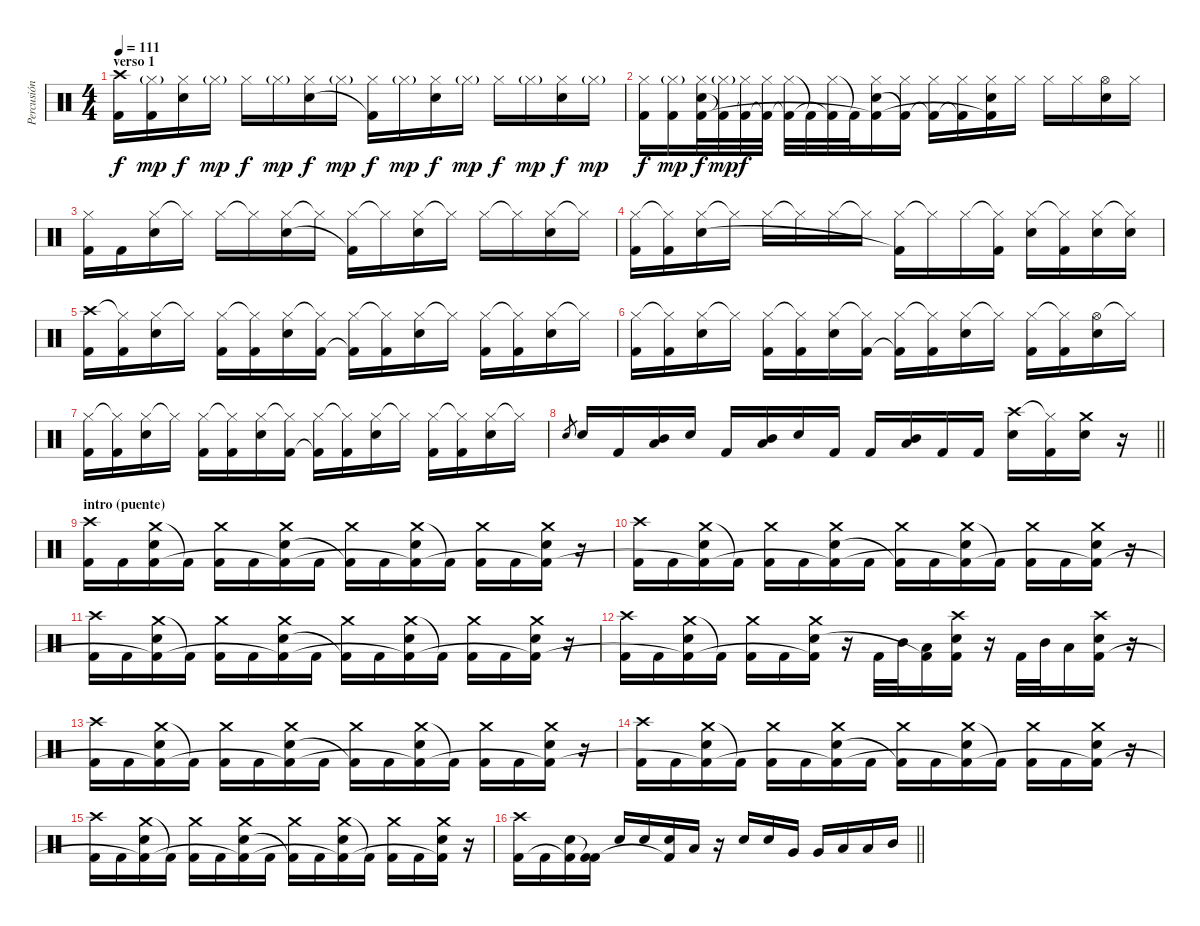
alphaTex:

\track ("Percusión" "Percusión") {instrument percussion}
\staff {score}
\articulation defaults
\ts (4 4)
\section ("" "verso 1")
\tempo 111
\clef neutral
\ks c
("Crash high (hit)" "Kick (hit) 2").16{dy f} ("Hi-Hat (closed)"{g} "Kick (hit) 2").16{dy mp} ("Hi-Hat (closed)" "Electric Snare (hit)").16{dy f} "Hi-Hat (closed)"{g}.16{dy mp} "Hi-Hat (closed)".16{dy f} "Hi-Hat (closed)"{g}.16{dy mp} ("Hi-Hat (closed)" "Electric Snare (hit)").16{dy f} "Hi-Hat (closed)"{g}.16{dy mp} ("Hi-Hat (closed)" "Kick (hit) 2"{t}).16{dy f} "Hi-Hat (closed)"{g}.16{dy mp} ("Hi-Hat (closed)" "Electric Snare (hit)").16{dy f} "Hi-Hat (closed)"{g}.16{dy mp} "Hi-Hat (closed)".16{dy f} "Hi-Hat (closed)"{g}.16{dy mp} ("Hi-Hat (closed)" "Electric Snare (hit)").16{dy f} "Hi-Hat (closed)"{g}.16{dy mp} |
("Hi-Hat (closed)" "Kick (hit) 2").16{dy f} ("Hi-Hat (closed)"{g} "Kick (hit) 2").16{dy mp} ("Hi-Hat (closed)" "Electric Snare (hit)" "Kick (hit) 2"{t}).32{dy f} ("Hi-Hat (closed)"{g} "Kick (hit) 2"{t}).32{dy mp} ("Hi-Hat (closed)" "Kick (hit) 2"{t}).32{dy f} ("Hi-Hat (closed)" "Kick (hit) 2"{t}).32 ("Hi-Hat (closed)" "Kick (hit) 2"{t}).32 "Kick (hit) 2"{t}.32 ("Hi-Hat (closed)" "Kick (hit) 2"{t}).32 "Kick (hit) 2"{t}.32 ("Hi-Hat (closed)" "Electric Snare (hit)" "Kick (hit) 2"{t}).16 ("Hi-Hat (closed)" "Kick (hit) 2"{t}).16 ("Hi-Hat (closed)" "Kick (hit) 2"{t}).16 ("Hi-Hat (closed)" "Kick (hit) 2"{t}).16 ("Hi-Hat (closed)" "Electric Snare (hit)" "Kick (hit) 2"{t}).16 "Hi-Hat (closed)".16 "Hi-Hat (closed)".16 "Hi-Hat (closed)".16 ("Hi-Hat (open)" "Electric Snare (hit)").16 "Hi-Hat (closed)".16 |
("Hi-Hat (closed)" "Kick (hit) 2").16 "Kick (hit) 2".16 ("Hi-Hat (closed)" "Electric Snare (hit)").16 "Hi-Hat (closed)"{t}.16 "Hi-Hat (closed)".16 "Hi-Hat (closed)"{t}.16 ("Hi-Hat (closed)" "Electric Snare (hit)").16 "Hi-Hat (closed)"{t}.16 ("Hi-Hat (closed)" "Kick (hit) 2"{t}).16 "Hi-Hat (closed)"{t}.16 ("Hi-Hat (closed)" "Electric Snare (hit)").16 "Hi-Hat (closed)"{t}.16 "Hi-Hat (closed)".16 "Hi-Hat (closed)"{t}.16 ("Hi-Hat (closed)" "Electric Snare (hit)").16 "Hi-Hat (closed)"{t}.16 |
("Hi-Hat (closed)" "Kick (hit) 2").16 ("Hi-Hat (closed)"{t} "Kick (hit) 2").16 ("Hi-Hat (closed)" "Electric Snare (hit)").16 "Hi-Hat (closed)"{t}.16 "Hi-Hat (closed)".16 "Hi-Hat (closed)"{t}.16 "Hi-Hat (closed)".16 "Hi-Hat (closed)"{t}.16 ("Hi-Hat (closed)" "Kick (hit) 2"{t}).16 "Hi-Hat (closed)"{t}.16 "Hi-Hat (closed)".16 ("Hi-Hat (closed)"{t} "Kick (hit) 2").16 ("Hi-Hat (closed)" "Electric Snare (hit)").16 ("Hi-Hat (closed)"{t} "Kick (hit) 2").16 ("Hi-Hat (closed)" "Electric Snare (hit)").16 ("Hi-Hat (closed)"{t} "Electric Snare (hit)").16 |
("Crash high (hit)" "Kick (hit) 2").16 ("Hi-Hat (closed)"{t} "Kick (hit) 2").16 ("Hi-Hat (closed)" "Electric Snare (hit)").16 "Hi-Hat (closed)"{t}.16 ("Hi-Hat (closed)" "Kick (hit) 2").16 ("Hi-Hat (closed)"{t} "Kick (hit) 2").16 ("Hi-Hat (closed)" "Electric Snare (hit)").16 ("Hi-Hat (closed)"{t} "Kick (hit) 2").16 ("Hi-Hat (closed)" "Kick (hit) 2"{t}).16 ("Hi-Hat (closed)"{t} "Kick (hit) 2").16 ("Hi-Hat (closed)" "Electric Snare (hit)").16 "Hi-Hat (closed)"{t}.16 ("Hi-Hat (closed)" "Kick (hit) 2").16 ("Hi-Hat (closed)"{t} "Kick (hit) 2").16 ("Hi-Hat (closed)" "Electric Snare (hit)").16 "Hi-Hat (closed)"{t}.16 |
("Hi-Hat (closed)" "Kick (hit) 2").16 ("Hi-Hat (closed)"{t} "Kick (hit) 2").16 ("Hi-Hat (closed)" "Electric Snare (hit)").16 "Hi-Hat (closed)"{t}.16 ("Hi-Hat (closed)" "Kick (hit) 2").16 ("Hi-Hat (closed)"{t} "Kick (hit) 2").16 ("Hi-Hat (closed)" "Electric Snare (hit)").16 ("Hi-Hat (closed)"{t} "Kick (hit) 2").16 ("Hi-Hat (closed)" "Kick (hit) 2"{t}).16 ("Hi-Hat (closed)"{t} "Kick (hit) 2").16 ("Hi-Hat (closed)" "Electric Snare (hit)").16 "Hi-Hat (closed)"{t}.16 ("Hi-Hat (closed)" "Kick (hit) 2").16 ("Hi-Hat (closed)"{t} "Kick (hit) 2").16 ("Hi-Hat (open)" "Electric Snare (hit)").16 "Hi-Hat (closed)"{t}.16 |
("Hi-Hat (closed)" "Kick (hit) 2").16 ("Hi-Hat (closed)"{t} "Kick (hit) 2").16 ("Hi-Hat (closed)" "Electric Snare (hit)").16 "Hi-Hat (closed)"{t}.16 ("Hi-Hat (closed)" "Kick (hit) 2").16 ("Hi-Hat (closed)"{t} "Kick (hit) 2").16 ("Hi-Hat (closed)" "Electric Snare (hit)").16 ("Hi-Hat (closed)"{t} "Kick (hit) 2").16 ("Hi-Hat (closed)" "Kick (hit) 2"{t}).16 ("Hi-Hat (closed)"{t} "Kick (hit) 2").16 ("Hi-Hat (closed)" "Electric Snare (hit)").16 "Hi-Hat (closed)"{t}.16 ("Hi-Hat (closed)" "Kick (hit) 2").16 ("Hi-Hat (closed)"{t} "Kick (hit) 2").16 ("Hi-Hat (closed)" "Electric Snare (hit)").16 "Hi-Hat (closed)"{t}.16 |
\barLineRight lightlight "Electric Snare (hit)".8{gr} "Electric Snare (hit)".16 "Kick (hit) 2".16
("Mid Tom (hit)" "Low Tom (hit)").16 "Electric Snare (hit)".16 "Kick (hit) 2".16 ("Mid Tom (hit)" "Low Tom (hit)").16 "Electric Snare (hit)".16 "Kick (hit) 2".16 "Kick (hit) 2".16 ("Mid Tom (hit)" "Low Tom (hit)").16 "Kick (hit) 2".16 "Kick (hit) 2".16 ("Crash high (hit)" "Electric Snare (hit)").16 ("Hi-Hat (closed)"{t} "Kick (hit) 2").16 ("Crash medium (hit)" "Electric Snare (hit)").16 r.16 |
\section ("" "intro (puente)")
("Crash high (hit)" "Kick (hit) 2").16 "Kick (hit) 2".16 ("Crash medium (hit)" "Electric Snare (hit)" "Kick (hit) 2").16 "Kick (hit) 2"{t}.16 ("Crash medium (hit)" "Kick (hit) 2").16 "Kick (hit) 2".16 ("Crash medium (hit)" "Electric Snare (hit)" "Kick (hit) 2"{t}).16 "Kick (hit) 2".16 ("Crash medium (hit)" "Kick (hit) 2"{t}).16 "Kick (hit) 2".16 ("Crash medium (hit)" "Electric Snare (hit)" "Kick (hit) 2"{t}).16 "Kick (hit) 2"{t}.16 ("Crash medium (hit)" "Kick (hit) 2").16 "Kick (hit) 2".16 ("Crash medium (hit)" "Electric Snare (hit)" "Kick (hit) 2"{t}).16 r.16 |
("Crash high (hit)" "Kick (hit) 2").16 "Kick (hit) 2".16 ("Crash medium (hit)" "Electric Snare (hit)" "Kick (hit) 2"{t}).16 "Kick (hit) 2"{t}.16 ("Crash medium (hit)" "Kick (hit) 2").16 "Kick (hit) 2".16 ("Crash medium (hit)" "Electric Snare (hit)" "Kick (hit) 2"{t}).16 "Kick (hit) 2".16 ("Crash medium (hit)" "Kick (hit) 2"{t}).16 "Kick (hit) 2".16 ("Crash medium (hit)" "Electric Snare (hit)" "Kick (hit) 2"{t}).16 "Kick (hit) 2"{t}.16 ("Crash medium (hit)" "Kick (hit) 2").16 "Kick (hit) 2".16 ("Crash medium (hit)" "Electric Snare (hit)" "Kick (hit) 2"{t}).16 r.16 |
("Crash high (hit)" "Kick (hit) 2").16 "Kick (hit) 2".16 ("Crash medium (hit)" "Electric Snare (hit)" "Kick (hit) 2"{t}).16 "Kick (hit) 2"{t}.16 ("Crash medium (hit)" "Kick (hit) 2").16 "Kick (hit) 2".16 ("Crash medium (hit)" "Electric Snare (hit)" "Kick (hit) 2"{t}).16 "Kick (hit) 2".16 ("Crash medium (hit)" "Kick (hit) 2"{t}).16 "Kick (hit) 2".16 ("Crash medium (hit)" "Electric Snare (hit)" "Kick (hit) 2"{t}).16 "Kick (hit) 2"{t}.16 ("Crash medium (hit)" "Kick (hit) 2").16 "Kick (hit) 2".16 ("Crash medium (hit)" "Electric Snare (hit)" "Kick (hit) 2"{t}).16 r.16 |
("Crash high (hit)" "Kick (hit) 2").16 "Kick (hit) 2".16 ("Crash medium (hit)" "Electric Snare (hit)" "Kick (hit) 2"{t}).16 "Kick (hit) 2"{t}.16 ("Crash medium (hit)" "Kick (hit) 2").16 "Kick (hit) 2".16 ("Crash medium (hit)" "Electric Snare (hit)" "Kick (hit) 2"{t}).16 r.16 "Kick (hit) 2".32 "Mid Tom (hit)".32 ("Low Tom (hit)" "Kick (hit) 2"{t}).16 ("Crash high (hit)" "Electric Snare (hit)" "Kick (hit) 2").16 r.16 "Kick (hit) 2".32 "Mid Tom (hit)".32 "Low Tom (hit)".16 ("Crash high (hit)" "Electric Snare (hit)" "Kick (hit) 2").16 r.16 |
("Crash high (hit)" "Kick (hit) 2").16 "Kick (hit) 2".16 ("Crash medium (hit)" "Electric Snare (hit)" "Kick (hit) 2"{t}).16 "Kick (hit) 2"{t}.16 ("Crash medium (hit)" "Kick (hit) 2").16 "Kick (hit) 2".16 ("Crash medium (hit)" "Electric Snare (hit)" "Kick (hit) 2"{t}).16 "Kick (hit) 2".16 ("Crash medium (hit)" "Kick (hit) 2"{t}).16 "Kick (hit) 2".16 ("Crash medium (hit)" "Electric Snare (hit)" "Kick (hit) 2"{t}).16 "Kick (hit) 2"{t}.16 ("Crash medium (hit)" "Kick (hit) 2").16 "Kick (hit) 2".16 ("Crash medium (hit)" "Electric Snare (hit)" "Kick (hit) 2"{t}).16 r.16 |
("Crash high (hit)" "Kick (hit) 2").16 "Kick (hit) 2".16 ("Crash medium (hit)" "Electric Snare (hit)" "Kick (hit) 2"{t}).16 "Kick (hit) 2"{t}.16 ("Crash medium (hit)" "Kick (hit) 2").16 "Kick (hit) 2".16 ("Crash medium (hit)" "Electric Snare (hit)" "Kick (hit) 2"{t}).16 "Kick (hit) 2".16 ("Crash medium (hit)" "Kick (hit) 2"{t}).16 "Kick (hit) 2".16 ("Crash medium (hit)" "Electric Snare (hit)" "Kick (hit) 2"{t}).16 "Kick (hit) 2"{t}.16 ("Crash medium (hit)" "Kick (hit) 2").16 "Kick (hit) 2".16 ("Crash medium (hit)" "Electric Snare (hit)" "Kick (hit) 2"{t}).16 r.16 |
("Crash high (hit)" "Kick (hit) 2").16 "Kick (hit) 2".16 ("Crash medium (hit)" "Electric Snare (hit)" "Kick (hit) 2"{t}).16 "Kick (hit) 2"{t}.16 ("Crash medium (hit)" "Kick (hit) 2").16 "Kick (hit) 2".16 ("Crash medium (hit)" "Electric Snare (hit)" "Kick (hit) 2"{t}).16 "Kick (hit) 2".16 ("Crash medium (hit)" "Kick (hit) 2"{t}).16 "Kick (hit) 2".16 ("Crash medium (hit)" "Electric Snare (hit)" "Kick (hit) 2"{t}).16 "Kick (hit) 2"{t}.16 ("Crash medium (hit)" "Kick (hit) 2").16 "Kick (hit) 2".16 ("Crash medium (hit)" "Electric Snare (hit)" "Kick (hit) 2"{t}).16 r.16 |
\barLineRight lightlight
("Crash high (hit)" "Kick (hit) 2").16 "Kick (hit) 2".16 ("Electric Snare (hit)" "Kick (hit) 2"{t}).16 ("Kick (hit) 2"{t} "Kick (hit) 2").16 "Electric Snare (hit)".16 "Electric Snare (hit)".16 ("Electric Snare (hit)" "Kick (hit) 2"{t}).16 "Low Tom (hit)".16 r.16 "Electric Snare (hit)".16 "Electric Snare (hit)".16 "Very Low Tom (hit)".16 "Very Low Tom (hit)".16 "Low Tom (hit)".16 "Low Tom (hit)".16 "Mid Tom (hit)".16
